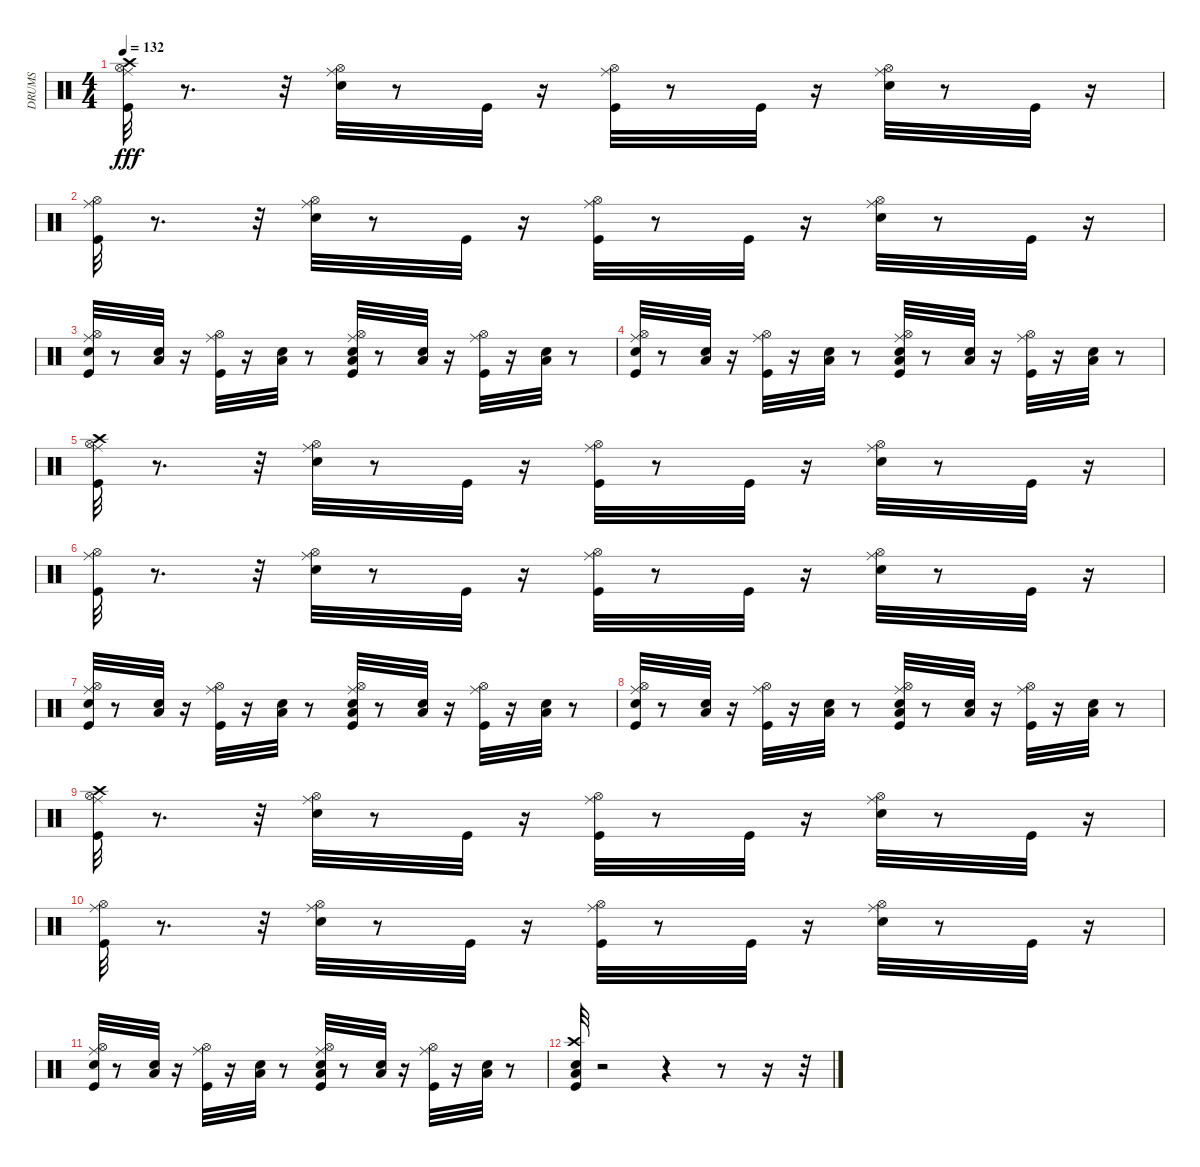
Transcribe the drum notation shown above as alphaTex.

\track ("DRUMS" "DRUMS") {instrument percussion}
\staff {score}
\articulation defaults
\ts (4 4)
\tempo 132
\clef neutral
\ks c
("Kick (hit)" "Crash high (hit)" "Ride (middle)" "Hi-Hat (open)").32{dy fff} r.8{d} r.32 ("Snare (hit) 2" "Ride (middle)" "Hi-Hat (open)").32 r.8 "Kick (hit)".32 r.16 ("Kick (hit)" "Ride (middle)" "Hi-Hat (open)").32 r.8 "Kick (hit)".32 r.16 ("Snare (hit) 2" "Ride (middle)" "Hi-Hat (open)").32 r.8 "Kick (hit)".32 r.16 |
("Kick (hit)" "Ride (middle)" "Hi-Hat (open)").32 r.8{d} r.32 ("Snare (hit) 2" "Ride (middle)" "Hi-Hat (open)").32 r.8 "Kick (hit)".32 r.16 ("Kick (hit)" "Ride (middle)" "Hi-Hat (open)").32 r.8 "Kick (hit)".32 r.16 ("Snare (hit) 2" "Ride (middle)" "Hi-Hat (open)").32 r.8 "Kick (hit)".32 r.16 |
("Snare (hit) 2" "Kick (hit)" "Ride (middle)" "Hi-Hat (open)").32 r.8 ("Snare (hit) 2" "Low Tom (hit)").32 r.16 ("Kick (hit)" "Ride (middle)" "Hi-Hat (open)").32 r.16 ("Snare (hit) 2" "Low Tom (hit)").32 r.8 ("Snare (hit) 2" "Low Tom (hit)" "Kick (hit)" "Ride (middle)" "Hi-Hat (open)").32 r.8 ("Snare (hit) 2" "Low Tom (hit)").32 r.16 ("Kick (hit)" "Ride (middle)" "Hi-Hat (open)").32 r.16 ("Snare (hit) 2" "Low Tom (hit)").32 r.8 |
("Snare (hit) 2" "Kick (hit)" "Ride (middle)" "Hi-Hat (open)").32 r.8 ("Snare (hit) 2" "Low Tom (hit)").32 r.16 ("Kick (hit)" "Ride (middle)" "Hi-Hat (open)").32 r.16 ("Snare (hit) 2" "Low Tom (hit)").32 r.8 ("Snare (hit) 2" "Low Tom (hit)" "Kick (hit)" "Ride (middle)" "Hi-Hat (open)").32 r.8 ("Snare (hit) 2" "Low Tom (hit)").32 r.16 ("Kick (hit)" "Ride (middle)" "Hi-Hat (open)").32 r.16 ("Snare (hit) 2" "Low Tom (hit)").32 r.8 |
("Kick (hit)" "Crash high (hit)" "Ride (middle)" "Hi-Hat (open)").32 r.8{d} r.32 ("Snare (hit) 2" "Ride (middle)" "Hi-Hat (open)").32 r.8 "Kick (hit)".32 r.16 ("Kick (hit)" "Ride (middle)" "Hi-Hat (open)").32 r.8 "Kick (hit)".32 r.16 ("Snare (hit) 2" "Ride (middle)" "Hi-Hat (open)").32 r.8 "Kick (hit)".32 r.16 |
("Kick (hit)" "Ride (middle)" "Hi-Hat (open)").32 r.8{d} r.32 ("Snare (hit) 2" "Ride (middle)" "Hi-Hat (open)").32 r.8 "Kick (hit)".32 r.16 ("Kick (hit)" "Ride (middle)" "Hi-Hat (open)").32 r.8 "Kick (hit)".32 r.16 ("Snare (hit) 2" "Ride (middle)" "Hi-Hat (open)").32 r.8 "Kick (hit)".32 r.16 |
("Snare (hit) 2" "Kick (hit)" "Ride (middle)" "Hi-Hat (open)").32 r.8 ("Snare (hit) 2" "Low Tom (hit)").32 r.16 ("Kick (hit)" "Ride (middle)" "Hi-Hat (open)").32 r.16 ("Snare (hit) 2" "Low Tom (hit)").32 r.8 ("Snare (hit) 2" "Low Tom (hit)" "Kick (hit)" "Ride (middle)" "Hi-Hat (open)").32 r.8 ("Snare (hit) 2" "Low Tom (hit)").32 r.16 ("Kick (hit)" "Ride (middle)" "Hi-Hat (open)").32 r.16 ("Snare (hit) 2" "Low Tom (hit)").32 r.8 |
("Snare (hit) 2" "Kick (hit)" "Ride (middle)" "Hi-Hat (open)").32 r.8 ("Snare (hit) 2" "Low Tom (hit)").32 r.16 ("Kick (hit)" "Ride (middle)" "Hi-Hat (open)").32 r.16 ("Snare (hit) 2" "Low Tom (hit)").32 r.8 ("Snare (hit) 2" "Low Tom (hit)" "Kick (hit)" "Ride (middle)" "Hi-Hat (open)").32 r.8 ("Snare (hit) 2" "Low Tom (hit)").32 r.16 ("Kick (hit)" "Ride (middle)" "Hi-Hat (open)").32 r.16 ("Snare (hit) 2" "Low Tom (hit)").32 r.8 |
("Kick (hit)" "Crash high (hit)" "Ride (middle)" "Hi-Hat (open)").32 r.8{d} r.32 ("Snare (hit) 2" "Ride (middle)" "Hi-Hat (open)").32 r.8 "Kick (hit)".32 r.16 ("Kick (hit)" "Ride (middle)" "Hi-Hat (open)").32 r.8 "Kick (hit)".32 r.16 ("Snare (hit) 2" "Ride (middle)" "Hi-Hat (open)").32 r.8 "Kick (hit)".32 r.16 |
("Kick (hit)" "Ride (middle)" "Hi-Hat (open)").32 r.8{d} r.32 ("Snare (hit) 2" "Ride (middle)" "Hi-Hat (open)").32 r.8 "Kick (hit)".32 r.16 ("Kick (hit)" "Ride (middle)" "Hi-Hat (open)").32 r.8 "Kick (hit)".32 r.16 ("Snare (hit) 2" "Ride (middle)" "Hi-Hat (open)").32 r.8 "Kick (hit)".32 r.16 |
("Snare (hit) 2" "Kick (hit)" "Ride (middle)" "Hi-Hat (open)").32 r.8 ("Snare (hit) 2" "Low Tom (hit)").32 r.16 ("Kick (hit)" "Ride (middle)" "Hi-Hat (open)").32 r.16 ("Snare (hit) 2" "Low Tom (hit)").32 r.8 ("Snare (hit) 2" "Low Tom (hit)" "Kick (hit)" "Ride (middle)" "Hi-Hat (open)").32 r.8 ("Snare (hit) 2" "Low Tom (hit)").32 r.16 ("Kick (hit)" "Ride (middle)" "Hi-Hat (open)").32 r.16 ("Snare (hit) 2" "Low Tom (hit)").32 r.8 |
("Snare (hit) 2" "Kick (hit)" "Low Floor Tom (hit)" "Crash high (hit)").32 r.2 r.4 r.8 r.16 r.32
